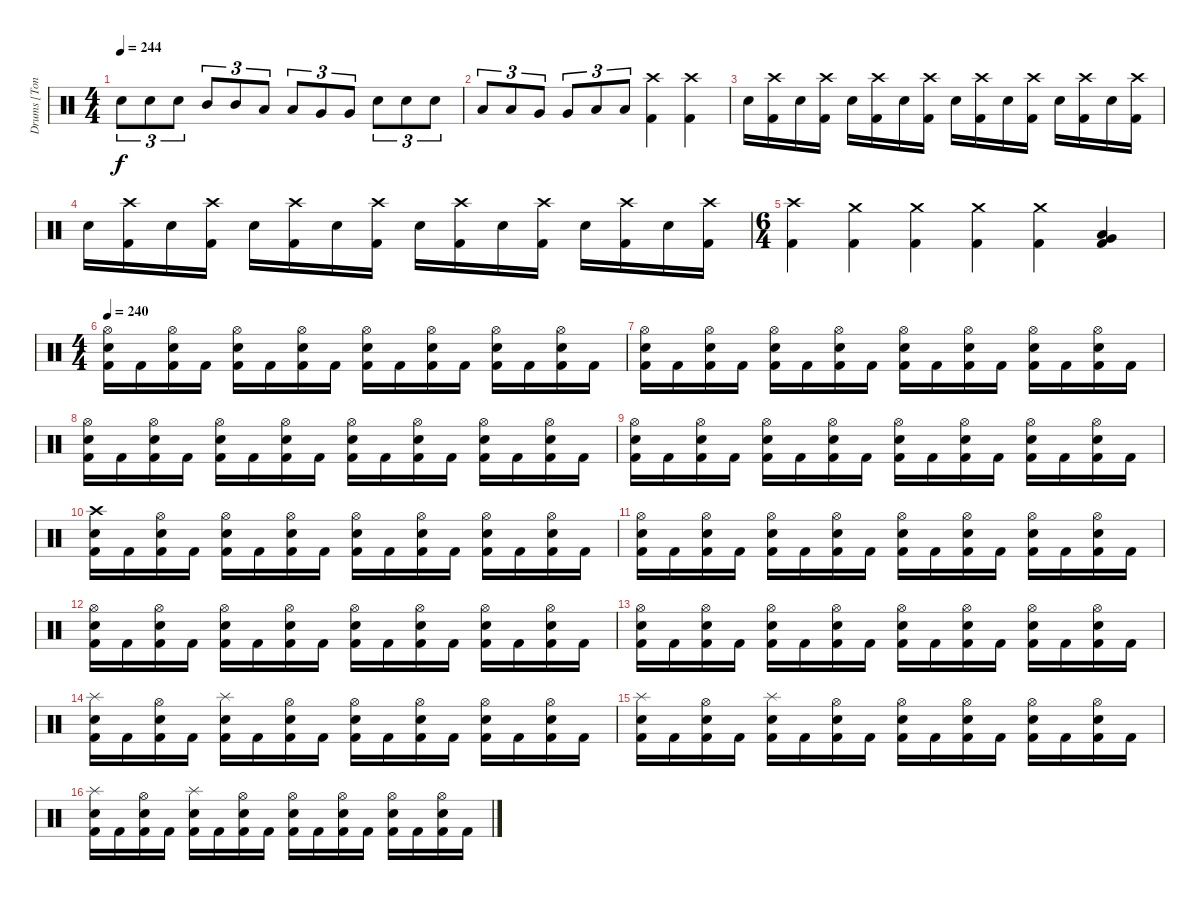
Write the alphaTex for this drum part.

\track ("Drums [Tony Laureano]" "Drums [Ton") {instrument percussion}
\staff {score}
\articulation defaults
\ts (4 4)
\tempo 244
\clef neutral
\ks c "Electric Snare (hit)".8{tu (3 2) dy f} "Electric Snare (hit)".8{tu (3 2)} "Electric Snare (hit)".8{tu (3 2)} "Mid Tom (hit)".8{tu (3 2)} "Mid Tom (hit)".8{tu (3 2)} "Low Tom (hit)".8{tu (3 2)} "Low Tom (hit)".8{tu (3 2)} "Very Low Tom (hit)".8{tu (3 2)} "Very Low Tom (hit)".8{tu (3 2)} "Electric Snare (hit)".8{tu (3 2)} "Electric Snare (hit)".8{tu (3 2)} "Electric Snare (hit)".8{tu (3 2)}
|
"Low Tom (hit)".8{tu (3 2)} "Low Tom (hit)".8{tu (3 2)} "Very Low Tom (hit)".8{tu (3 2)} "Very Low Tom (hit)".8{tu (3 2)} "Low Floor Tom (hit)".8{tu (3 2)} "Low Floor Tom (hit)".8{tu (3 2)} ("Crash high (hit)" "Kick (hit) 2").4 ("Crash high (hit)" "Kick (hit) 2").4 |
"Electric Snare (hit)".16 ("Crash high (hit)" "Kick (hit) 2").16 "Electric Snare (hit)".16 ("Crash high (hit)" "Kick (hit) 2").16 "Electric Snare (hit)".16 ("Crash high (hit)" "Kick (hit) 2").16 "Electric Snare (hit)".16 ("Crash high (hit)" "Kick (hit) 2").16 "Electric Snare (hit)".16 ("Crash high (hit)" "Kick (hit) 2").16 "Electric Snare (hit)".16 ("Crash high (hit)" "Kick (hit) 2").16 "Electric Snare (hit)".16 ("Crash high (hit)" "Kick (hit) 2").16 "Electric Snare (hit)".16 ("Crash high (hit)" "Kick (hit) 2").16 |
"Electric Snare (hit)".16 ("Crash high (hit)" "Kick (hit) 2").16 "Electric Snare (hit)".16 ("Crash high (hit)" "Kick (hit) 2").16 "Electric Snare (hit)".16 ("Crash high (hit)" "Kick (hit) 2").16 "Electric Snare (hit)".16 ("Crash high (hit)" "Kick (hit) 2").16 "Electric Snare (hit)".16 ("Crash high (hit)" "Kick (hit) 2").16 "Electric Snare (hit)".16 ("Crash high (hit)" "Kick (hit) 2").16 "Electric Snare (hit)".16 ("Crash high (hit)" "Kick (hit) 2").16 "Electric Snare (hit)".16 ("Crash high (hit)" "Kick (hit) 2").16 |
\ts (6 4)
("Crash high (hit)" "Kick (hit) 2").4 ("Crash medium (hit)" "Kick (hit) 2").4 ("Crash medium (hit)" "Kick (hit) 2").4 ("Crash medium (hit)" "Kick (hit) 2").4 ("Crash medium (hit)" "Kick (hit) 2").4 ("Very Low Tom (hit)" "Low Floor Tom (hit)" "Kick (hit) 2").4 |
\ts (4 4)
\tempo 240
("Hi-Hat (open)" "Electric Snare (hit)" "Kick (hit) 2").16 "Kick (hit) 2".16 ("Hi-Hat (open)" "Electric Snare (hit)" "Kick (hit) 2").16 "Kick (hit) 2".16 ("Hi-Hat (open)" "Electric Snare (hit)" "Kick (hit) 2").16 "Kick (hit) 2".16 ("Hi-Hat (open)" "Electric Snare (hit)" "Kick (hit) 2").16 "Kick (hit) 2".16 ("Hi-Hat (open)" "Electric Snare (hit)" "Kick (hit) 2").16 "Kick (hit) 2".16 ("Hi-Hat (open)" "Electric Snare (hit)" "Kick (hit) 2").16 "Kick (hit) 2".16 ("Hi-Hat (open)" "Electric Snare (hit)" "Kick (hit) 2").16 "Kick (hit) 2".16 ("Hi-Hat (open)" "Electric Snare (hit)" "Kick (hit) 2").16 "Kick (hit) 2".16 |
("Hi-Hat (open)" "Electric Snare (hit)" "Kick (hit) 2").16 "Kick (hit) 2".16 ("Hi-Hat (open)" "Electric Snare (hit)" "Kick (hit) 2").16 "Kick (hit) 2".16 ("Hi-Hat (open)" "Electric Snare (hit)" "Kick (hit) 2").16 "Kick (hit) 2".16 ("Hi-Hat (open)" "Electric Snare (hit)" "Kick (hit) 2").16 "Kick (hit) 2".16 ("Hi-Hat (open)" "Electric Snare (hit)" "Kick (hit) 2").16 "Kick (hit) 2".16 ("Hi-Hat (open)" "Electric Snare (hit)" "Kick (hit) 2").16 "Kick (hit) 2".16 ("Hi-Hat (open)" "Electric Snare (hit)" "Kick (hit) 2").16 "Kick (hit) 2".16 ("Hi-Hat (open)" "Electric Snare (hit)" "Kick (hit) 2").16 "Kick (hit) 2".16 |
("Hi-Hat (open)" "Electric Snare (hit)" "Kick (hit) 2").16 "Kick (hit) 2".16 ("Hi-Hat (open)" "Electric Snare (hit)" "Kick (hit) 2").16 "Kick (hit) 2".16 ("Hi-Hat (open)" "Electric Snare (hit)" "Kick (hit) 2").16 "Kick (hit) 2".16 ("Hi-Hat (open)" "Electric Snare (hit)" "Kick (hit) 2").16 "Kick (hit) 2".16 ("Hi-Hat (open)" "Electric Snare (hit)" "Kick (hit) 2").16 "Kick (hit) 2".16 ("Hi-Hat (open)" "Electric Snare (hit)" "Kick (hit) 2").16 "Kick (hit) 2".16 ("Hi-Hat (open)" "Electric Snare (hit)" "Kick (hit) 2").16 "Kick (hit) 2".16 ("Hi-Hat (open)" "Electric Snare (hit)" "Kick (hit) 2").16 "Kick (hit) 2".16 |
("Hi-Hat (open)" "Electric Snare (hit)" "Kick (hit) 2").16 "Kick (hit) 2".16 ("Hi-Hat (open)" "Electric Snare (hit)" "Kick (hit) 2").16 "Kick (hit) 2".16 ("Hi-Hat (open)" "Electric Snare (hit)" "Kick (hit) 2").16 "Kick (hit) 2".16 ("Hi-Hat (open)" "Electric Snare (hit)" "Kick (hit) 2").16 "Kick (hit) 2".16 ("Hi-Hat (open)" "Electric Snare (hit)" "Kick (hit) 2").16 "Kick (hit) 2".16 ("Hi-Hat (open)" "Electric Snare (hit)" "Kick (hit) 2").16 "Kick (hit) 2".16 ("Hi-Hat (open)" "Electric Snare (hit)" "Kick (hit) 2").16 "Kick (hit) 2".16 ("Hi-Hat (open)" "Electric Snare (hit)" "Kick (hit) 2").16 "Kick (hit) 2".16 |
("Crash high (hit)" "Electric Snare (hit)" "Kick (hit) 2").16 "Kick (hit) 2".16 ("Hi-Hat (open)" "Electric Snare (hit)" "Kick (hit) 2").16 "Kick (hit) 2".16 ("Hi-Hat (open)" "Electric Snare (hit)" "Kick (hit) 2").16 "Kick (hit) 2".16 ("Hi-Hat (open)" "Electric Snare (hit)" "Kick (hit) 2").16 "Kick (hit) 2".16 ("Hi-Hat (open)" "Electric Snare (hit)" "Kick (hit) 2").16 "Kick (hit) 2".16 ("Hi-Hat (open)" "Electric Snare (hit)" "Kick (hit) 2").16 "Kick (hit) 2".16 ("Hi-Hat (open)" "Electric Snare (hit)" "Kick (hit) 2").16 "Kick (hit) 2".16 ("Hi-Hat (open)" "Electric Snare (hit)" "Kick (hit) 2").16 "Kick (hit) 2".16 |
("Hi-Hat (open)" "Electric Snare (hit)" "Kick (hit) 2").16 "Kick (hit) 2".16 ("Hi-Hat (open)" "Electric Snare (hit)" "Kick (hit) 2").16 "Kick (hit) 2".16 ("Hi-Hat (open)" "Electric Snare (hit)" "Kick (hit) 2").16 "Kick (hit) 2".16 ("Hi-Hat (open)" "Electric Snare (hit)" "Kick (hit) 2").16 "Kick (hit) 2".16 ("Hi-Hat (open)" "Electric Snare (hit)" "Kick (hit) 2").16 "Kick (hit) 2".16 ("Hi-Hat (open)" "Electric Snare (hit)" "Kick (hit) 2").16 "Kick (hit) 2".16 ("Hi-Hat (open)" "Electric Snare (hit)" "Kick (hit) 2").16 "Kick (hit) 2".16 ("Hi-Hat (open)" "Electric Snare (hit)" "Kick (hit) 2").16 "Kick (hit) 2".16 |
("Hi-Hat (open)" "Electric Snare (hit)" "Kick (hit) 2").16 "Kick (hit) 2".16 ("Hi-Hat (open)" "Electric Snare (hit)" "Kick (hit) 2").16 "Kick (hit) 2".16 ("Hi-Hat (open)" "Electric Snare (hit)" "Kick (hit) 2").16 "Kick (hit) 2".16 ("Hi-Hat (open)" "Electric Snare (hit)" "Kick (hit) 2").16 "Kick (hit) 2".16 ("Hi-Hat (open)" "Electric Snare (hit)" "Kick (hit) 2").16 "Kick (hit) 2".16 ("Hi-Hat (open)" "Electric Snare (hit)" "Kick (hit) 2").16 "Kick (hit) 2".16 ("Hi-Hat (open)" "Electric Snare (hit)" "Kick (hit) 2").16 "Kick (hit) 2".16 ("Hi-Hat (open)" "Electric Snare (hit)" "Kick (hit) 2").16 "Kick (hit) 2".16 |
("Hi-Hat (open)" "Electric Snare (hit)" "Kick (hit) 2").16 "Kick (hit) 2".16 ("Hi-Hat (open)" "Electric Snare (hit)" "Kick (hit) 2").16 "Kick (hit) 2".16 ("Hi-Hat (open)" "Electric Snare (hit)" "Kick (hit) 2").16 "Kick (hit) 2".16 ("Hi-Hat (open)" "Electric Snare (hit)" "Kick (hit) 2").16 "Kick (hit) 2".16 ("Hi-Hat (open)" "Electric Snare (hit)" "Kick (hit) 2").16 "Kick (hit) 2".16 ("Hi-Hat (open)" "Electric Snare (hit)" "Kick (hit) 2").16 "Kick (hit) 2".16 ("Hi-Hat (open)" "Electric Snare (hit)" "Kick (hit) 2").16 "Kick (hit) 2".16 ("Hi-Hat (open)" "Electric Snare (hit)" "Kick (hit) 2").16 "Kick (hit) 2".16 |
("Splash (hit)" "Electric Snare (hit)" "Kick (hit) 2").16 "Kick (hit) 2".16 ("Hi-Hat (open)" "Electric Snare (hit)" "Kick (hit) 2").16 "Kick (hit) 2".16 ("Splash (hit)" "Electric Snare (hit)" "Kick (hit) 2").16 "Kick (hit) 2".16 ("Hi-Hat (open)" "Electric Snare (hit)" "Kick (hit) 2").16 "Kick (hit) 2".16 ("Hi-Hat (open)" "Electric Snare (hit)" "Kick (hit) 2").16 "Kick (hit) 2".16 ("Hi-Hat (open)" "Electric Snare (hit)" "Kick (hit) 2").16 "Kick (hit) 2".16 ("Hi-Hat (open)" "Electric Snare (hit)" "Kick (hit) 2").16 "Kick (hit) 2".16 ("Hi-Hat (open)" "Electric Snare (hit)" "Kick (hit) 2").16 "Kick (hit) 2".16 |
("Splash (hit)" "Electric Snare (hit)" "Kick (hit) 2").16 "Kick (hit) 2".16 ("Hi-Hat (open)" "Electric Snare (hit)" "Kick (hit) 2").16 "Kick (hit) 2".16 ("Splash (hit)" "Electric Snare (hit)" "Kick (hit) 2").16 "Kick (hit) 2".16 ("Hi-Hat (open)" "Electric Snare (hit)" "Kick (hit) 2").16 "Kick (hit) 2".16 ("Hi-Hat (open)" "Electric Snare (hit)" "Kick (hit) 2").16 "Kick (hit) 2".16 ("Hi-Hat (open)" "Electric Snare (hit)" "Kick (hit) 2").16 "Kick (hit) 2".16 ("Hi-Hat (open)" "Electric Snare (hit)" "Kick (hit) 2").16 "Kick (hit) 2".16 ("Hi-Hat (open)" "Electric Snare (hit)" "Kick (hit) 2").16 "Kick (hit) 2".16 |
("Splash (hit)" "Electric Snare (hit)" "Kick (hit) 2").16 "Kick (hit) 2".16 ("Hi-Hat (open)" "Electric Snare (hit)" "Kick (hit) 2").16 "Kick (hit) 2".16 ("Splash (hit)" "Electric Snare (hit)" "Kick (hit) 2").16 "Kick (hit) 2".16 ("Hi-Hat (open)" "Electric Snare (hit)" "Kick (hit) 2").16 "Kick (hit) 2".16 ("Hi-Hat (open)" "Electric Snare (hit)" "Kick (hit) 2").16 "Kick (hit) 2".16 ("Hi-Hat (open)" "Electric Snare (hit)" "Kick (hit) 2").16 "Kick (hit) 2".16 ("Hi-Hat (open)" "Electric Snare (hit)" "Kick (hit) 2").16 "Kick (hit) 2".16 ("Hi-Hat (open)" "Electric Snare (hit)" "Kick (hit) 2").16 "Kick (hit) 2".16
